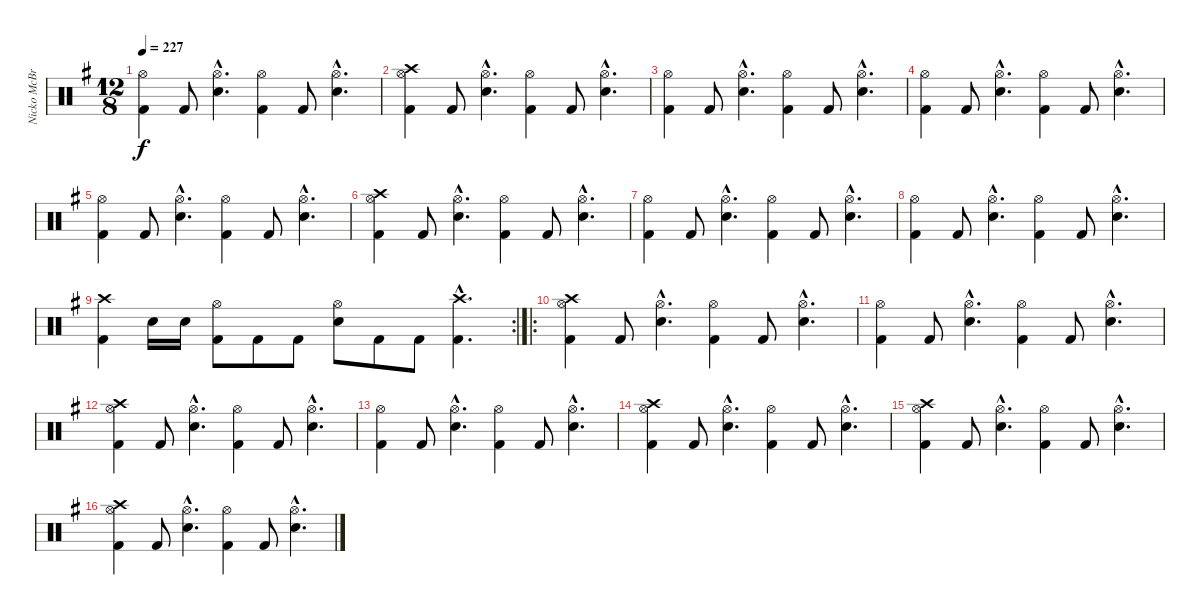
\track ("Nicko McBrain" "Nicko McBr") {instrument percussion}
\staff {score}
\articulation defaults
\ts (12 8)
\tempo 227
\clef neutral
\ks g
("Kick (hit) 2" "Hi-Hat (open)").4{dy f} "Kick (hit) 2".8 ("Snare (hit) 2"{hac} "Hi-Hat (open)"{hac}).4{d} ("Kick (hit) 2" "Hi-Hat (open)").4 "Kick (hit) 2".8 ("Snare (hit) 2"{hac} "Hi-Hat (open)"{hac}).4{d} |
("Kick (hit) 2" "Hi-Hat (open)" "Crash high (hit)").4 "Kick (hit) 2".8 ("Snare (hit) 2"{hac} "Hi-Hat (open)"{hac}).4{d} ("Kick (hit) 2" "Hi-Hat (open)").4 "Kick (hit) 2".8 ("Snare (hit) 2"{hac} "Hi-Hat (open)"{hac}).4{d} |
("Kick (hit) 2" "Hi-Hat (open)").4 "Kick (hit) 2".8 ("Snare (hit) 2"{hac} "Hi-Hat (open)"{hac}).4{d} ("Kick (hit) 2" "Hi-Hat (open)").4 "Kick (hit) 2".8 ("Snare (hit) 2"{hac} "Hi-Hat (open)"{hac}).4{d} |
("Kick (hit) 2" "Hi-Hat (open)").4 "Kick (hit) 2".8 ("Snare (hit) 2"{hac} "Hi-Hat (open)"{hac}).4{d} ("Kick (hit) 2" "Hi-Hat (open)").4 "Kick (hit) 2".8 ("Snare (hit) 2"{hac} "Hi-Hat (open)"{hac}).4{d} |
("Kick (hit) 2" "Hi-Hat (open)").4 "Kick (hit) 2".8 ("Snare (hit) 2"{hac} "Hi-Hat (open)"{hac}).4{d} ("Kick (hit) 2" "Hi-Hat (open)").4 "Kick (hit) 2".8 ("Snare (hit) 2"{hac} "Hi-Hat (open)"{hac}).4{d} |
("Kick (hit) 2" "Hi-Hat (open)" "Crash high (hit)").4 "Kick (hit) 2".8 ("Snare (hit) 2"{hac} "Hi-Hat (open)"{hac}).4{d} ("Kick (hit) 2" "Hi-Hat (open)").4 "Kick (hit) 2".8 ("Snare (hit) 2"{hac} "Hi-Hat (open)"{hac}).4{d} |
("Kick (hit) 2" "Hi-Hat (open)").4 "Kick (hit) 2".8 ("Snare (hit) 2"{hac} "Hi-Hat (open)"{hac}).4{d} ("Kick (hit) 2" "Hi-Hat (open)").4 "Kick (hit) 2".8 ("Snare (hit) 2"{hac} "Hi-Hat (open)"{hac}).4{d} |
("Kick (hit) 2" "Hi-Hat (open)").4 "Kick (hit) 2".8 ("Snare (hit) 2"{hac} "Hi-Hat (open)"{hac}).4{d} ("Kick (hit) 2" "Hi-Hat (open)").4 "Kick (hit) 2".8 ("Snare (hit) 2"{hac} "Hi-Hat (open)"{hac}).4{d} |
\rc 2
("Kick (hit) 2" "Crash high (hit)").4 "Snare (hit) 2".16 "Snare (hit) 2".16 ("Kick (hit) 2" "Hi-Hat (open)").8 "Kick (hit) 2".8 "Kick (hit) 2".8 ("Snare (hit) 2" "Hi-Hat (open)").8 "Kick (hit) 2".8 "Kick (hit) 2".8 ("Kick (hit) 2"{hac} "Crash high (hit)"{hac}).4{d} |
\ro
("Kick (hit) 2" "Hi-Hat (open)" "Crash high (hit)").4 "Kick (hit) 2".8 ("Snare (hit) 2"{hac} "Hi-Hat (open)"{hac}).4{d} ("Kick (hit) 2" "Hi-Hat (open)").4 "Kick (hit) 2".8 ("Snare (hit) 2"{hac} "Hi-Hat (open)"{hac}).4{d} |
("Kick (hit) 2" "Hi-Hat (open)").4 "Kick (hit) 2".8 ("Snare (hit) 2"{hac} "Hi-Hat (open)"{hac}).4{d} ("Kick (hit) 2" "Hi-Hat (open)").4 "Kick (hit) 2".8 ("Snare (hit) 2"{hac} "Hi-Hat (open)"{hac}).4{d} |
("Kick (hit) 2" "Hi-Hat (open)" "Crash high (hit)").4 "Kick (hit) 2".8 ("Snare (hit) 2"{hac} "Hi-Hat (open)"{hac}).4{d} ("Kick (hit) 2" "Hi-Hat (open)").4 "Kick (hit) 2".8 ("Snare (hit) 2"{hac} "Hi-Hat (open)"{hac}).4{d} |
("Kick (hit) 2" "Hi-Hat (open)").4 "Kick (hit) 2".8 ("Snare (hit) 2"{hac} "Hi-Hat (open)"{hac}).4{d} ("Kick (hit) 2" "Hi-Hat (open)").4 "Kick (hit) 2".8 ("Snare (hit) 2"{hac} "Hi-Hat (open)"{hac}).4{d} |
("Kick (hit) 2" "Hi-Hat (open)" "Crash high (hit)").4 "Kick (hit) 2".8 ("Snare (hit) 2"{hac} "Hi-Hat (open)"{hac}).4{d} ("Kick (hit) 2" "Hi-Hat (open)").4 "Kick (hit) 2".8 ("Snare (hit) 2"{hac} "Hi-Hat (open)"{hac}).4{d} |
("Kick (hit) 2" "Hi-Hat (open)" "Crash high (hit)").4 "Kick (hit) 2".8 ("Snare (hit) 2"{hac} "Hi-Hat (open)"{hac}).4{d} ("Kick (hit) 2" "Hi-Hat (open)").4 "Kick (hit) 2".8 ("Snare (hit) 2"{hac} "Hi-Hat (open)"{hac}).4{d} |
("Kick (hit) 2" "Hi-Hat (open)" "Crash high (hit)").4 "Kick (hit) 2".8 ("Snare (hit) 2"{hac} "Hi-Hat (open)"{hac}).4{d} ("Kick (hit) 2" "Hi-Hat (open)").4 "Kick (hit) 2".8 ("Snare (hit) 2"{hac} "Hi-Hat (open)"{hac}).4{d}
